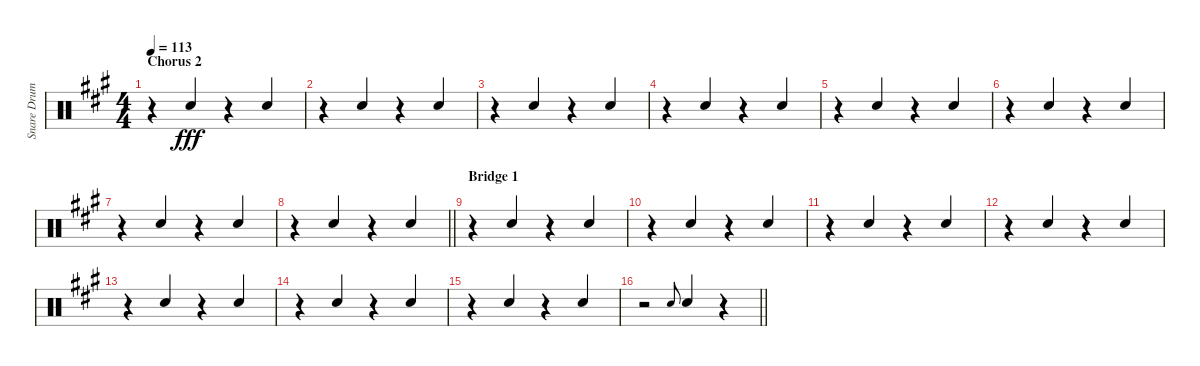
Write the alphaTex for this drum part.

\track ("Snare Drum" "Snare Drum") {instrument percussion}
\staff {score}
\articulation defaults
\ts (4 4)
\section ("" "Chorus 2")
\tempo 113
\clef neutral
\ks f#minor
r.4{dy fff} "Electric Snare (hit)".4{beam Up} r.4 "Electric Snare (hit)".4{beam Up} |
r.4 "Electric Snare (hit)".4{beam Up} r.4 "Electric Snare (hit)".4{beam Up} |
r.4 "Electric Snare (hit)".4{beam Up} r.4 "Electric Snare (hit)".4{beam Up} |
r.4 "Electric Snare (hit)".4{beam Up} r.4 "Electric Snare (hit)".4{beam Up} |
r.4 "Electric Snare (hit)".4{beam Up} r.4 "Electric Snare (hit)".4{beam Up} |
r.4 "Electric Snare (hit)".4{beam Up} r.4 "Electric Snare (hit)".4{beam Up} |
r.4 "Electric Snare (hit)".4{beam Up} r.4 "Electric Snare (hit)".4{beam Up} |
\barLineRight lightlight
r.4 "Electric Snare (hit)".4{beam Up} r.4 "Electric Snare (hit)".4{beam Up} |
\section ("" "Bridge 1")
r.4 "Electric Snare (hit)".4{beam Up} r.4 "Electric Snare (hit)".4{beam Up} |
r.4 "Electric Snare (hit)".4{beam Up} r.4 "Electric Snare (hit)".4{beam Up} |
r.4 "Electric Snare (hit)".4{beam Up} r.4 "Electric Snare (hit)".4{beam Up} |
r.4 "Electric Snare (hit)".4{beam Up} r.4 "Electric Snare (hit)".4{beam Up} |
r.4 "Electric Snare (hit)".4{beam Up} r.4 "Electric Snare (hit)".4{beam Up} |
r.4 "Electric Snare (hit)".4{beam Up} r.4 "Electric Snare (hit)".4{beam Up} |
r.4 "Electric Snare (hit)".4{beam Up} r.4 "Electric Snare (hit)".4{beam Up} |
\barLineRight lightlight
r.2 "Electric Snare (hit)".8{gr onbeat} "Electric Snare (hit)".4{beam Up} r.4
